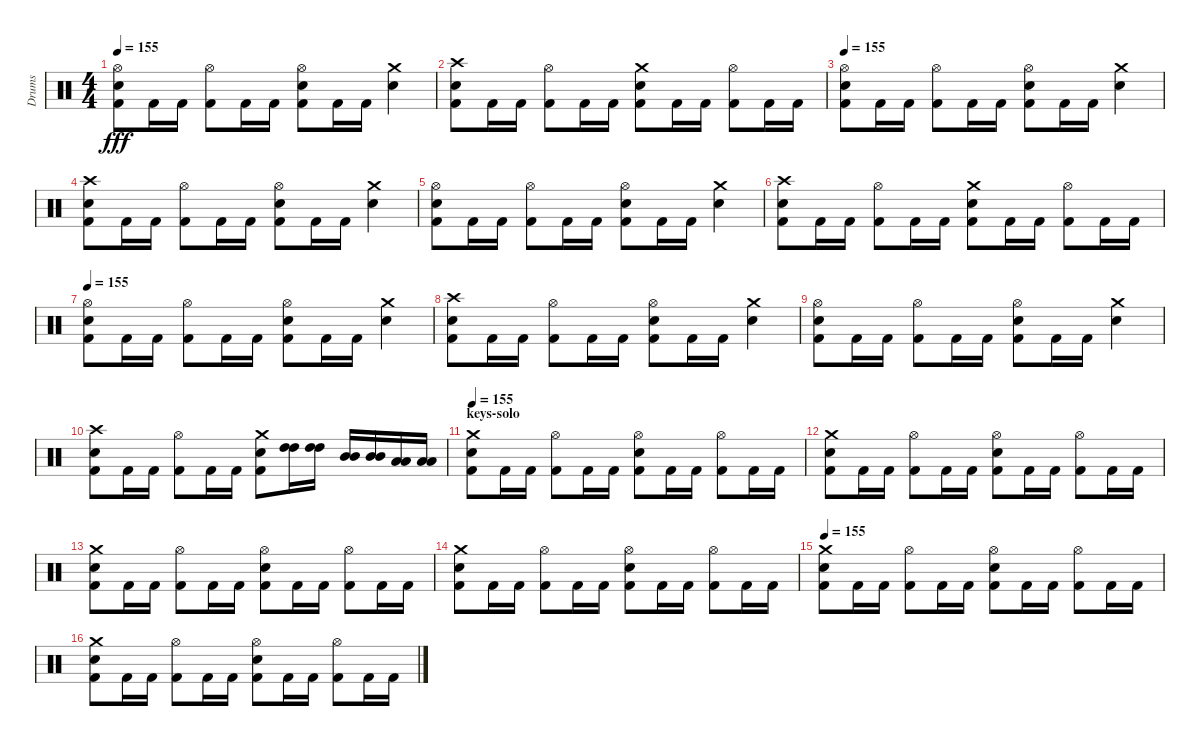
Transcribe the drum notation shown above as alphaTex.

\track ("Drums" "Drums") {instrument percussion}
\staff {score}
\articulation defaults
\ts (4 4)
\tempo 155
\clef neutral
\ks c
("Hi-Hat (open)" "Electric Snare (hit)" "Kick (hit) 2").8{dy fff} "Kick (hit) 2".16 "Kick (hit) 2".16 ("Hi-Hat (open)" "Kick (hit) 2").8 "Kick (hit) 2".16 "Kick (hit) 2".16 ("Hi-Hat (open)" "Electric Snare (hit)" "Kick (hit) 2").8 "Kick (hit) 2".16 "Kick (hit) 2".16 ("Crash medium (hit)" "Electric Snare (hit)").4 |
("Crash high (hit)" "Electric Snare (hit)" "Kick (hit) 2").8 "Kick (hit) 2".16 "Kick (hit) 2".16 ("Hi-Hat (open)" "Kick (hit) 2").8 "Kick (hit) 2".16 "Kick (hit) 2".16 ("Crash medium (hit)" "Electric Snare (hit)" "Kick (hit) 2").8 "Kick (hit) 2".16 "Kick (hit) 2".16 ("Hi-Hat (open)" "Kick (hit) 2").8 "Kick (hit) 2".16 "Kick (hit) 2".16 |
\tempo 155
("Hi-Hat (open)" "Electric Snare (hit)" "Kick (hit) 2").8 "Kick (hit) 2".16 "Kick (hit) 2".16 ("Hi-Hat (open)" "Kick (hit) 2").8 "Kick (hit) 2".16 "Kick (hit) 2".16 ("Hi-Hat (open)" "Electric Snare (hit)" "Kick (hit) 2").8 "Kick (hit) 2".16 "Kick (hit) 2".16 ("Crash medium (hit)" "Electric Snare (hit)").4 |
("Crash high (hit)" "Electric Snare (hit)" "Kick (hit) 2").8 "Kick (hit) 2".16 "Kick (hit) 2".16 ("Hi-Hat (open)" "Kick (hit) 2").8 "Kick (hit) 2".16 "Kick (hit) 2".16 ("Hi-Hat (open)" "Electric Snare (hit)" "Kick (hit) 2").8 "Kick (hit) 2".16 "Kick (hit) 2".16 ("Crash medium (hit)" "Electric Snare (hit)").4 |
("Hi-Hat (open)" "Electric Snare (hit)" "Kick (hit) 2").8 "Kick (hit) 2".16 "Kick (hit) 2".16 ("Hi-Hat (open)" "Kick (hit) 2").8 "Kick (hit) 2".16 "Kick (hit) 2".16 ("Hi-Hat (open)" "Electric Snare (hit)" "Kick (hit) 2").8 "Kick (hit) 2".16 "Kick (hit) 2".16 ("Crash medium (hit)" "Electric Snare (hit)").4 |
("Crash high (hit)" "Electric Snare (hit)" "Kick (hit) 2").8 "Kick (hit) 2".16 "Kick (hit) 2".16 ("Hi-Hat (open)" "Kick (hit) 2").8 "Kick (hit) 2".16 "Kick (hit) 2".16 ("Crash medium (hit)" "Electric Snare (hit)" "Kick (hit) 2").8 "Kick (hit) 2".16 "Kick (hit) 2".16 ("Hi-Hat (open)" "Kick (hit) 2").8 "Kick (hit) 2".16 "Kick (hit) 2".16 |
\tempo 155
("Hi-Hat (open)" "Electric Snare (hit)" "Kick (hit) 2").8 "Kick (hit) 2".16 "Kick (hit) 2".16 ("Hi-Hat (open)" "Kick (hit) 2").8 "Kick (hit) 2".16 "Kick (hit) 2".16 ("Hi-Hat (open)" "Electric Snare (hit)" "Kick (hit) 2").8 "Kick (hit) 2".16 "Kick (hit) 2".16 ("Crash medium (hit)" "Electric Snare (hit)").4 |
("Crash high (hit)" "Electric Snare (hit)" "Kick (hit) 2").8 "Kick (hit) 2".16 "Kick (hit) 2".16 ("Hi-Hat (open)" "Kick (hit) 2").8 "Kick (hit) 2".16 "Kick (hit) 2".16 ("Hi-Hat (open)" "Electric Snare (hit)" "Kick (hit) 2").8 "Kick (hit) 2".16 "Kick (hit) 2".16 ("Crash medium (hit)" "Electric Snare (hit)").4 |
("Hi-Hat (open)" "Electric Snare (hit)" "Kick (hit) 2").8 "Kick (hit) 2".16 "Kick (hit) 2".16 ("Hi-Hat (open)" "Kick (hit) 2").8 "Kick (hit) 2".16 "Kick (hit) 2".16 ("Hi-Hat (open)" "Electric Snare (hit)" "Kick (hit) 2").8 "Kick (hit) 2".16 "Kick (hit) 2".16 ("Crash medium (hit)" "Electric Snare (hit)").4 |
("Crash high (hit)" "Electric Snare (hit)" "Kick (hit) 2").8 "Kick (hit) 2".16 "Kick (hit) 2".16 ("Hi-Hat (open)" "Kick (hit) 2").8 "Kick (hit) 2".16 "Kick (hit) 2".16 ("Crash medium (hit)" "Electric Snare (hit)" "Kick (hit) 2").8 ("High Tom (hit)" "High Tom (hit)").16 ("High Tom (hit)" "High Tom (hit)").16 ("Mid Tom (hit)" "Mid Tom (hit)").16 ("Mid Tom (hit)" "Mid Tom (hit)").16 ("Low Tom (hit)" "Low Tom (hit)").16 ("Low Tom (hit)" "Low Tom (hit)").16 |
\section ("" "keys-solo")
\tempo 155
("Crash medium (hit)" "Electric Snare (hit)" "Kick (hit) 2").8 "Kick (hit) 2".16 "Kick (hit) 2".16 ("Hi-Hat (open)" "Kick (hit) 2").8 "Kick (hit) 2".16 "Kick (hit) 2".16 ("Hi-Hat (open)" "Electric Snare (hit)" "Kick (hit) 2").8 "Kick (hit) 2".16 "Kick (hit) 2".16 ("Hi-Hat (open)" "Kick (hit) 2").8 "Kick (hit) 2".16 "Kick (hit) 2".16 |
("Crash medium (hit)" "Electric Snare (hit)" "Kick (hit) 2").8 "Kick (hit) 2".16 "Kick (hit) 2".16 ("Hi-Hat (open)" "Kick (hit) 2").8 "Kick (hit) 2".16 "Kick (hit) 2".16 ("Hi-Hat (open)" "Electric Snare (hit)" "Kick (hit) 2").8 "Kick (hit) 2".16 "Kick (hit) 2".16 ("Hi-Hat (open)" "Kick (hit) 2").8 "Kick (hit) 2".16 "Kick (hit) 2".16 |
("Crash medium (hit)" "Electric Snare (hit)" "Kick (hit) 2").8 "Kick (hit) 2".16 "Kick (hit) 2".16 ("Hi-Hat (open)" "Kick (hit) 2").8 "Kick (hit) 2".16 "Kick (hit) 2".16 ("Hi-Hat (open)" "Electric Snare (hit)" "Kick (hit) 2").8 "Kick (hit) 2".16 "Kick (hit) 2".16 ("Hi-Hat (open)" "Kick (hit) 2").8 "Kick (hit) 2".16 "Kick (hit) 2".16 |
("Crash medium (hit)" "Electric Snare (hit)" "Kick (hit) 2").8 "Kick (hit) 2".16 "Kick (hit) 2".16 ("Hi-Hat (open)" "Kick (hit) 2").8 "Kick (hit) 2".16 "Kick (hit) 2".16 ("Hi-Hat (open)" "Electric Snare (hit)" "Kick (hit) 2").8 "Kick (hit) 2".16 "Kick (hit) 2".16 ("Hi-Hat (open)" "Kick (hit) 2").8 "Kick (hit) 2".16 "Kick (hit) 2".16 |
\tempo 155
("Crash medium (hit)" "Electric Snare (hit)" "Kick (hit) 2").8 "Kick (hit) 2".16 "Kick (hit) 2".16 ("Hi-Hat (open)" "Kick (hit) 2").8 "Kick (hit) 2".16 "Kick (hit) 2".16 ("Hi-Hat (open)" "Electric Snare (hit)" "Kick (hit) 2").8 "Kick (hit) 2".16 "Kick (hit) 2".16 ("Hi-Hat (open)" "Kick (hit) 2").8 "Kick (hit) 2".16 "Kick (hit) 2".16 |
("Crash medium (hit)" "Electric Snare (hit)" "Kick (hit) 2").8 "Kick (hit) 2".16 "Kick (hit) 2".16 ("Hi-Hat (open)" "Kick (hit) 2").8 "Kick (hit) 2".16 "Kick (hit) 2".16 ("Hi-Hat (open)" "Electric Snare (hit)" "Kick (hit) 2").8 "Kick (hit) 2".16 "Kick (hit) 2".16 ("Hi-Hat (open)" "Kick (hit) 2").8 "Kick (hit) 2".16 "Kick (hit) 2".16
